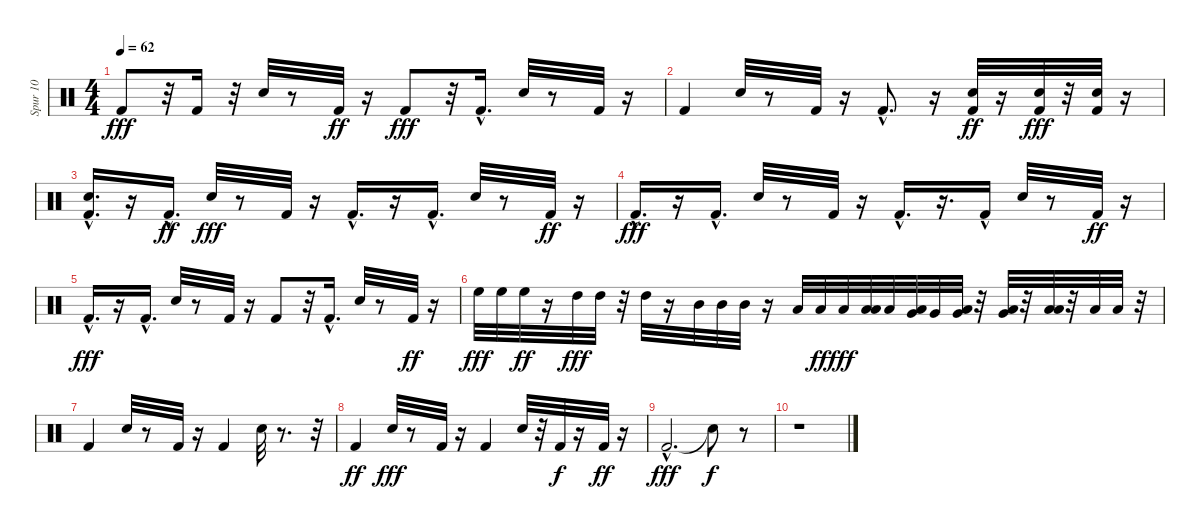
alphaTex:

\track ("Spur 10" "Spur 10") {instrument percussion}
\staff {score}
\articulation defaults
\ts (4 4)
\tempo 62
\clef neutral
\ks c "Kick (hit) 2".8{dy fff}
r.32 "Kick (hit) 2".16 r.32 "Electric Snare (hit)".32 r.8 "Kick (hit) 2".32{dy ff} r.16 "Kick (hit) 2".8{dy fff} r.32 "Kick (hit) 2"{hac}.16{d} "Electric Snare (hit)".32 r.8 "Kick (hit) 2".32 r.16 |
"Kick (hit) 2".4 "Electric Snare (hit)".32 r.8 "Kick (hit) 2".32 r.16 "Kick (hit) 2"{hac}.8{d} r.16 ("Kick (hit) 2" "Electric Snare (hit)").32{dy ff} r.16 ("Kick (hit) 2" "Electric Snare (hit)").32{dy fff} r.32 ("Kick (hit) 2" "Electric Snare (hit)").32 r.16 |
("Electric Snare (hit)" "Kick (hit) 2"{hac}).16{d} r.16 "Kick (hit) 2"{hac}.16{d dy ff} "Electric Snare (hit)".32{dy fff} r.8 "Kick (hit) 2".32 r.16 "Kick (hit) 2"{hac}.16{d} r.16 "Kick (hit) 2"{hac}.16{d} "Electric Snare (hit)".32 r.8 "Kick (hit) 2".32{dy ff} r.16 |
"Kick (hit) 2"{hac}.16{d dy fff} r.16 "Kick (hit) 2"{hac}.16{d} "Electric Snare (hit)".32 r.8 "Kick (hit) 2".32 r.16 "Kick (hit) 2"{hac}.16{d} r.16{d} "Kick (hit) 2"{hac}.16 "Electric Snare (hit)".32 r.8 "Kick (hit) 2".32{dy ff} r.16 |
"Kick (hit) 2"{hac}.16{d dy fff} r.16 "Kick (hit) 2"{hac}.16{d} "Electric Snare (hit)".32 r.8 "Kick (hit) 2".32 r.16 "Kick (hit) 2".8 r.32 "Kick (hit) 2"{hac}.16{d} "Electric Snare (hit)".32 r.8 "Kick (hit) 2".32{dy ff} r.16 |
"High Floor Tom (hit)".32{dy fff} "High Floor Tom (hit)".32 "High Floor Tom (hit)".32{dy ff} r.16 "High Tom (hit)".32{dy fff} "High Tom (hit)".32 r.32 "High Tom (hit)".32 r.16 "Mid Tom (hit)".32 "Mid Tom (hit)".32 "Mid Tom (hit)".32 r.16 "Low Tom (hit)".32 "Low Tom (hit)".32{dy ff} "Low Tom (hit)".32{dy fff} ("Low Tom (hit)" "Low Tom (hit)").32 "Low Tom (hit)".32 ("Very Low Tom (hit)" "Low Tom (hit)").32 "Very Low Tom (hit)".32 ("Very Low Tom (hit)" "Low Tom (hit)").32 r.32 ("Very Low Tom (hit)" "Low Floor Tom (hit)").32 r.32 ("Low Floor Tom (hit)" "Low Floor Tom (hit)").32 r.32 "Low Floor Tom (hit)".32 "Low Floor Tom (hit)".32 r.32 |
"Kick (hit) 2".4 "Electric Snare (hit)".32 r.8 "Kick (hit) 2".32 r.16 "Kick (hit) 2".4 "Electric Snare (hit)".32 r.8{d} r.32 |
"Kick (hit) 2".4{dy ff} "Electric Snare (hit)".32{dy fff} r.8 "Kick (hit) 2".32 r.16 "Kick (hit) 2".4 "Electric Snare (hit)".32 r.32 "Kick (hit) 2".32{dy f} r.16 "Kick (hit) 2".32{dy ff} r.16 |
"Kick (hit) 2"{hac}.2{d dy fff} "Snare (hit)"{t}.8{dy f} r.8 |
r.1
